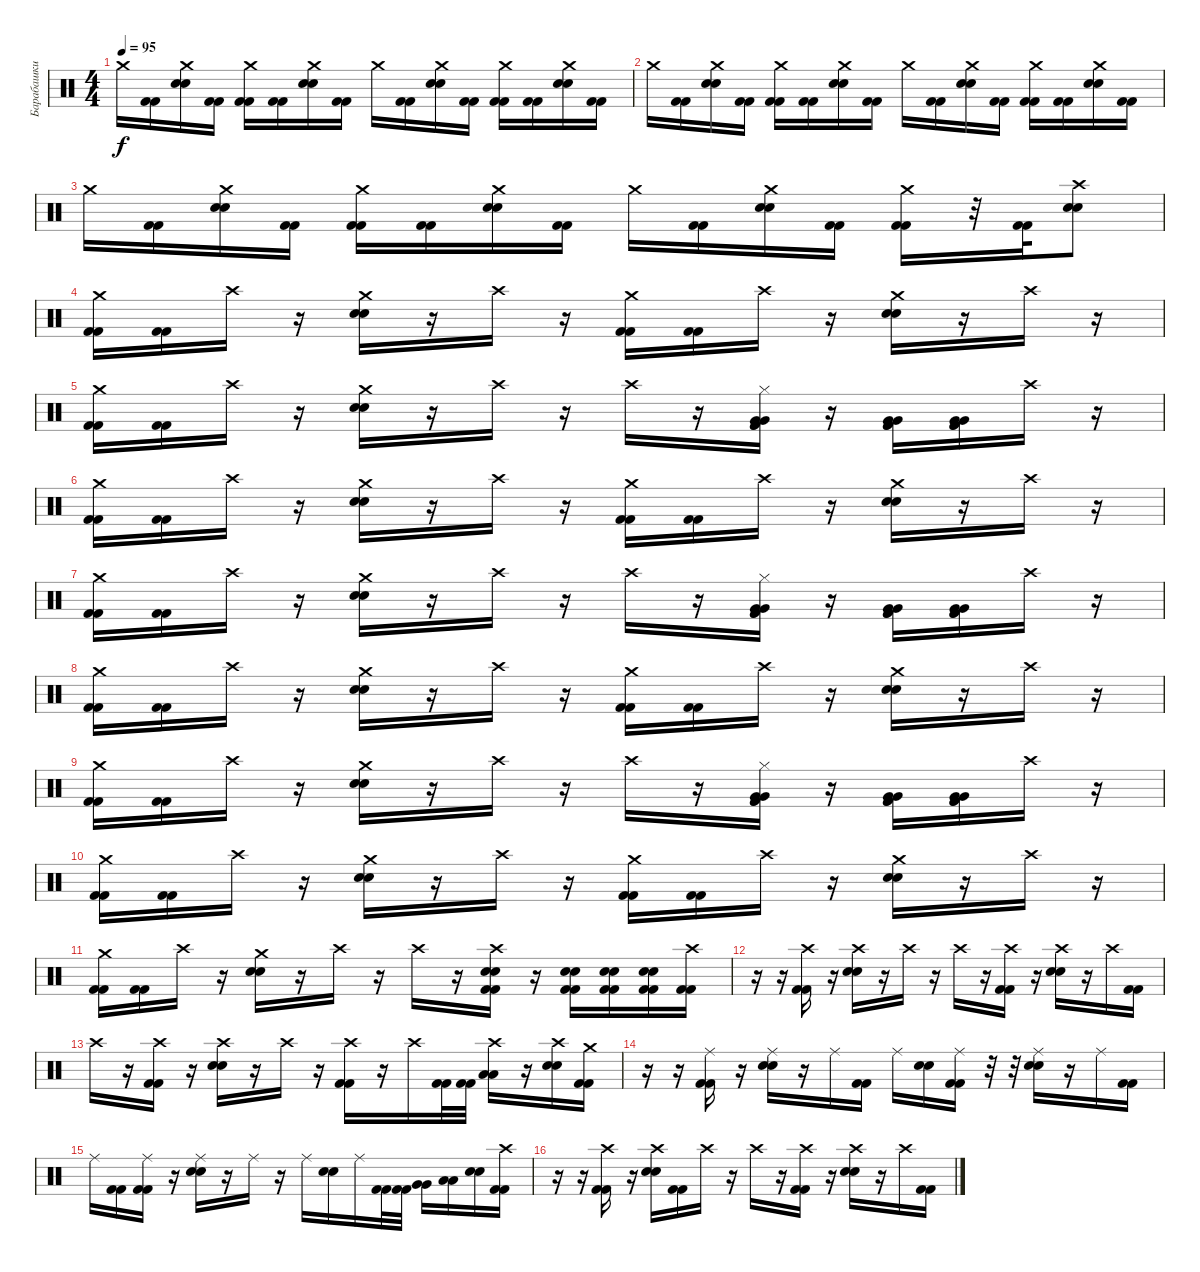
\track ("Барабашки" "Барабашки") {instrument percussion}
\staff {score}
\articulation defaults
\ts (4 4)
\tempo 95
\clef neutral
\ks c "Crash medium (hit)".16{dy f}
("Kick (hit) 2" "Kick (hit) 2").16 ("Crash medium (hit)" "Electric Snare (hit)" "Electric Snare (hit)").16 ("Kick (hit) 2" "Kick (hit) 2").16 ("Crash medium (hit)" "Kick (hit) 2" "Kick (hit) 2").16 ("Kick (hit) 2" "Kick (hit) 2").16 ("Crash medium (hit)" "Electric Snare (hit)" "Electric Snare (hit)").16 ("Kick (hit) 2" "Kick (hit) 2").16 "Crash medium (hit)".16 ("Kick (hit) 2" "Kick (hit) 2").16 ("Crash medium (hit)" "Electric Snare (hit)" "Electric Snare (hit)").16 ("Kick (hit) 2" "Kick (hit) 2").16 ("Crash medium (hit)" "Kick (hit) 2" "Kick (hit) 2").16 ("Kick (hit) 2" "Kick (hit) 2").16 ("Crash medium (hit)" "Electric Snare (hit)" "Electric Snare (hit)").16 ("Kick (hit) 2" "Kick (hit) 2").16 |
"Crash medium (hit)".16 ("Kick (hit) 2" "Kick (hit) 2").16 ("Crash medium (hit)" "Electric Snare (hit)" "Electric Snare (hit)").16 ("Kick (hit) 2" "Kick (hit) 2").16 ("Crash medium (hit)" "Kick (hit) 2" "Kick (hit) 2").16 ("Kick (hit) 2" "Kick (hit) 2").16 ("Crash medium (hit)" "Electric Snare (hit)" "Electric Snare (hit)").16 ("Kick (hit) 2" "Kick (hit) 2").16 "Crash medium (hit)".16 ("Kick (hit) 2" "Kick (hit) 2").16 ("Crash medium (hit)" "Electric Snare (hit)" "Electric Snare (hit)").16 ("Kick (hit) 2" "Kick (hit) 2").16 ("Crash medium (hit)" "Kick (hit) 2" "Kick (hit) 2").16 ("Kick (hit) 2" "Kick (hit) 2").16 ("Crash medium (hit)" "Electric Snare (hit)" "Electric Snare (hit)").16 ("Kick (hit) 2" "Kick (hit) 2").16 |
"Crash medium (hit)".16 ("Kick (hit) 2" "Kick (hit) 2").16 ("Crash medium (hit)" "Electric Snare (hit)" "Electric Snare (hit)").16 ("Kick (hit) 2" "Kick (hit) 2").16 ("Crash medium (hit)" "Kick (hit) 2" "Kick (hit) 2").16 ("Kick (hit) 2" "Kick (hit) 2").16 ("Crash medium (hit)" "Electric Snare (hit)" "Electric Snare (hit)").16 ("Kick (hit) 2" "Kick (hit) 2").16 "Crash medium (hit)".16 ("Kick (hit) 2" "Kick (hit) 2").16 ("Crash medium (hit)" "Electric Snare (hit)" "Electric Snare (hit)").16 ("Kick (hit) 2" "Kick (hit) 2").16 ("Crash medium (hit)" "Kick (hit) 2" "Kick (hit) 2").16 r.32 ("Kick (hit) 2" "Kick (hit) 2").32 ("Crash high (hit)" "Electric Snare (hit)" "Electric Snare (hit)").8 |
("Crash medium (hit)" "Kick (hit) 2" "Kick (hit) 2").16 ("Kick (hit) 2" "Kick (hit) 2").16 "Crash high (hit)".16 r.16 ("Crash medium (hit)" "Electric Snare (hit)" "Electric Snare (hit)").16 r.16 "Crash high (hit)".16 r.16 ("Crash medium (hit)" "Kick (hit) 2" "Kick (hit) 2").16 ("Kick (hit) 2" "Kick (hit) 2").16 "Crash high (hit)".16 r.16 ("Crash medium (hit)" "Electric Snare (hit)" "Electric Snare (hit)").16 r.16 "Crash high (hit)".16 r.16 |
("Crash medium (hit)" "Kick (hit) 2" "Kick (hit) 2").16 ("Kick (hit) 2" "Kick (hit) 2").16 "Crash high (hit)".16 r.16 ("Crash medium (hit)" "Electric Snare (hit)" "Electric Snare (hit)").16 r.16 "Crash high (hit)".16 r.16 "Crash high (hit)".16 r.16 ("Hi-Hat (closed)" "Very Low Tom (hit)" "Very Low Tom (hit)" "Kick (hit) 2" "Kick (hit) 2").16 r.16 ("Very Low Tom (hit)" "Very Low Tom (hit)" "Kick (hit) 2" "Kick (hit) 2").16 ("Very Low Tom (hit)" "Very Low Tom (hit)" "Kick (hit) 2" "Kick (hit) 2").16 "Crash high (hit)".16 r.16 |
("Crash medium (hit)" "Kick (hit) 2" "Kick (hit) 2").16 ("Kick (hit) 2" "Kick (hit) 2").16 "Crash high (hit)".16 r.16 ("Crash medium (hit)" "Electric Snare (hit)" "Electric Snare (hit)").16 r.16 "Crash high (hit)".16 r.16 ("Crash medium (hit)" "Kick (hit) 2" "Kick (hit) 2").16 ("Kick (hit) 2" "Kick (hit) 2").16 "Crash high (hit)".16 r.16 ("Crash medium (hit)" "Electric Snare (hit)" "Electric Snare (hit)").16 r.16 "Crash high (hit)".16 r.16 |
("Crash medium (hit)" "Kick (hit) 2" "Kick (hit) 2").16 ("Kick (hit) 2" "Kick (hit) 2").16 "Crash high (hit)".16 r.16 ("Crash medium (hit)" "Electric Snare (hit)" "Electric Snare (hit)").16 r.16 "Crash high (hit)".16 r.16 "Crash high (hit)".16 r.16 ("Hi-Hat (closed)" "Very Low Tom (hit)" "Very Low Tom (hit)" "Kick (hit) 2" "Kick (hit) 2").16 r.16 ("Very Low Tom (hit)" "Very Low Tom (hit)" "Kick (hit) 2" "Kick (hit) 2").16 ("Very Low Tom (hit)" "Very Low Tom (hit)" "Kick (hit) 2" "Kick (hit) 2").16 "Crash high (hit)".16 r.16 |
("Crash medium (hit)" "Kick (hit) 2" "Kick (hit) 2").16 ("Kick (hit) 2" "Kick (hit) 2").16 "Crash high (hit)".16 r.16 ("Crash medium (hit)" "Electric Snare (hit)" "Electric Snare (hit)").16 r.16 "Crash high (hit)".16 r.16 ("Crash medium (hit)" "Kick (hit) 2" "Kick (hit) 2").16 ("Kick (hit) 2" "Kick (hit) 2").16 "Crash high (hit)".16 r.16 ("Crash medium (hit)" "Electric Snare (hit)" "Electric Snare (hit)").16 r.16 "Crash high (hit)".16 r.16 |
("Crash medium (hit)" "Kick (hit) 2" "Kick (hit) 2").16 ("Kick (hit) 2" "Kick (hit) 2").16 "Crash high (hit)".16 r.16 ("Crash medium (hit)" "Electric Snare (hit)" "Electric Snare (hit)").16 r.16 "Crash high (hit)".16 r.16 "Crash high (hit)".16 r.16 ("Hi-Hat (closed)" "Very Low Tom (hit)" "Very Low Tom (hit)" "Kick (hit) 2" "Kick (hit) 2").16 r.16 ("Very Low Tom (hit)" "Very Low Tom (hit)" "Kick (hit) 2" "Kick (hit) 2").16 ("Very Low Tom (hit)" "Very Low Tom (hit)" "Kick (hit) 2" "Kick (hit) 2").16 "Crash high (hit)".16 r.16 |
("Crash medium (hit)" "Kick (hit) 2" "Kick (hit) 2").16 ("Kick (hit) 2" "Kick (hit) 2").16 "Crash high (hit)".16 r.16 ("Crash medium (hit)" "Electric Snare (hit)" "Electric Snare (hit)").16 r.16 "Crash high (hit)".16 r.16 ("Crash medium (hit)" "Kick (hit) 2" "Kick (hit) 2").16 ("Kick (hit) 2" "Kick (hit) 2").16 "Crash high (hit)".16 r.16 ("Crash medium (hit)" "Electric Snare (hit)" "Electric Snare (hit)").16 r.16 "Crash high (hit)".16 r.16 |
("Crash medium (hit)" "Kick (hit) 2" "Kick (hit) 2").16 ("Kick (hit) 2" "Kick (hit) 2").16 "Crash high (hit)".16 r.16 ("Crash medium (hit)" "Electric Snare (hit)" "Electric Snare (hit)").16 r.16 "Crash high (hit)".16 r.16 "Crash high (hit)".16 r.16 ("Crash high (hit)" "Electric Snare (hit)" "Electric Snare (hit)" "Kick (hit) 2" "Kick (hit) 2").16 r.16 ("Electric Snare (hit)" "Electric Snare (hit)" "Kick (hit) 2" "Kick (hit) 2").16 ("Electric Snare (hit)" "Electric Snare (hit)" "Kick (hit) 2" "Kick (hit) 2").16 ("Electric Snare (hit)" "Electric Snare (hit)" "Kick (hit) 2" "Kick (hit) 2").16 ("Crash high (hit)" "Kick (hit) 2" "Kick (hit) 2").16 |
r.16 r.16 ("Crash high (hit)" "Kick (hit) 2" "Kick (hit) 2").16 r.16 ("Crash high (hit)" "Electric Snare (hit)" "Electric Snare (hit)").16 r.16 "Crash high (hit)".16 r.16 "Crash high (hit)".16 r.16 ("Crash high (hit)" "Kick (hit) 2" "Kick (hit) 2").16 r.16 ("Crash high (hit)" "Electric Snare (hit)" "Electric Snare (hit)").16 r.16 "Crash high (hit)".16 ("Kick (hit) 2" "Kick (hit) 2").16 |
"Crash high (hit)".16 r.16 ("Crash high (hit)" "Kick (hit) 2" "Kick (hit) 2").16 r.16 ("Crash high (hit)" "Electric Snare (hit)" "Electric Snare (hit)").16 r.16 "Crash high (hit)".16 r.16 ("Crash high (hit)" "Kick (hit) 2" "Kick (hit) 2").16 r.16 "Crash high (hit)".16 ("Kick (hit) 2" "Kick (hit) 2").32 ("Kick (hit) 2" "Kick (hit) 2").32 ("Crash high (hit)" "Low Floor Tom (hit)" "Low Floor Tom (hit)").16 r.16 ("Crash high (hit)" "Electric Snare (hit)" "Electric Snare (hit)").16 ("Crash medium (hit)" "Kick (hit) 2" "Kick (hit) 2").16 |
r.16 r.16 ("Ride (middle)" "Kick (hit) 2" "Kick (hit) 2").16 r.16 ("Ride (middle)" "Electric Snare (hit)" "Electric Snare (hit)").16 r.16 "Ride (middle)".16 ("Kick (hit) 2" "Kick (hit) 2").16 "Ride (middle)".16 ("Electric Snare (hit)" "Electric Snare (hit)").16 ("Ride (middle)" "Kick (hit) 2" "Kick (hit) 2").16 r.32 r.32 ("Ride (middle)" "Electric Snare (hit)" "Electric Snare (hit)").16 r.16 "Ride (middle)".16 ("Kick (hit) 2" "Kick (hit) 2").16 |
"Ride (middle)".16 ("Kick (hit) 2" "Kick (hit) 2").16 ("Ride (middle)" "Kick (hit) 2" "Kick (hit) 2").16 r.16 ("Ride (middle)" "Electric Snare (hit)" "Electric Snare (hit)").16 r.16 "Ride (middle)".16 r.16 "Ride (middle)".16 ("Electric Snare (hit)" "Electric Snare (hit)").16 "Ride (middle)".16 ("Kick (hit) 2" "Kick (hit) 2").32 ("Kick (hit) 2" "Kick (hit) 2").32 ("Very Low Tom (hit)" "Very Low Tom (hit)").16 ("Low Floor Tom (hit)" "Low Floor Tom (hit)").16 ("Electric Snare (hit)" "Electric Snare (hit)").16 ("Crash high (hit)" "Kick (hit) 2" "Kick (hit) 2").16 |
r.16 r.16 ("Crash high (hit)" "Kick (hit) 2" "Kick (hit) 2").16 r.16 ("Crash high (hit)" "Electric Snare (hit)" "Electric Snare (hit)").16 ("Kick (hit) 2" "Kick (hit) 2").16 "Crash high (hit)".16 r.16 "Crash high (hit)".16 r.16 ("Crash high (hit)" "Kick (hit) 2" "Kick (hit) 2").16 r.16 ("Crash high (hit)" "Electric Snare (hit)" "Electric Snare (hit)").16 r.16 "Crash high (hit)".16 ("Kick (hit) 2" "Kick (hit) 2").16
